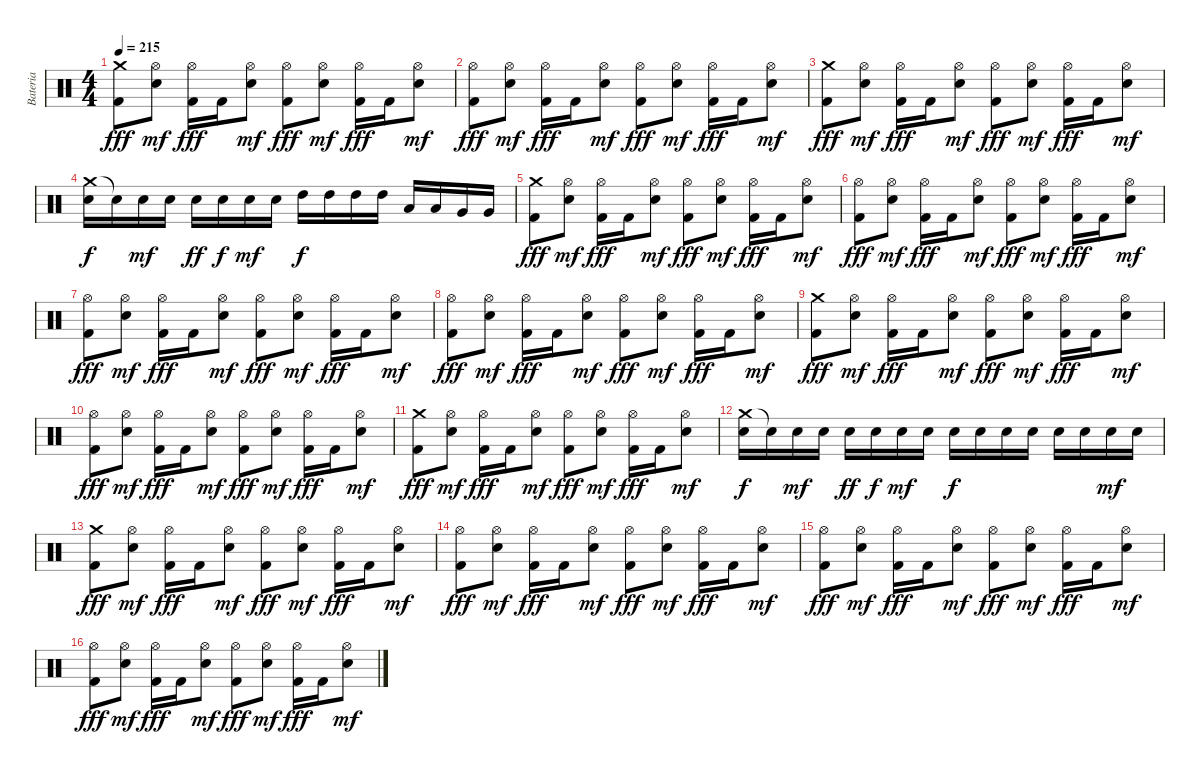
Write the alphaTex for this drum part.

\track ("Bateria" "Bateria") {instrument percussion}
\staff {score}
\articulation defaults
\ts (4 4)
\tempo 215
\clef neutral
\ks c
("Crash medium (hit)" "Kick (hit) 2").8{dy fff} ("Hi-Hat (open)" "Electric Snare (hit)").8{dy mf} ("Hi-Hat (open)" "Kick (hit) 2").16{dy fff} "Kick (hit) 2".16 ("Hi-Hat (open)" "Electric Snare (hit)").8{dy mf} ("Hi-Hat (open)" "Kick (hit) 2").8{dy fff} ("Hi-Hat (open)" "Electric Snare (hit)").8{dy mf} ("Hi-Hat (open)" "Kick (hit) 2").16{dy fff} "Kick (hit) 2".16 ("Hi-Hat (open)" "Electric Snare (hit)").8{dy mf} |
("Hi-Hat (open)" "Kick (hit) 2").8{dy fff} ("Hi-Hat (open)" "Electric Snare (hit)").8{dy mf} ("Hi-Hat (open)" "Kick (hit) 2").16{dy fff} "Kick (hit) 2".16 ("Hi-Hat (open)" "Electric Snare (hit)").8{dy mf} ("Hi-Hat (open)" "Kick (hit) 2").8{dy fff} ("Hi-Hat (open)" "Electric Snare (hit)").8{dy mf} ("Hi-Hat (open)" "Kick (hit) 2").16{dy fff} "Kick (hit) 2".16 ("Hi-Hat (open)" "Electric Snare (hit)").8{dy mf} |
("Crash medium (hit)" "Kick (hit) 2").8{dy fff} ("Hi-Hat (open)" "Electric Snare (hit)").8{dy mf} ("Hi-Hat (open)" "Kick (hit) 2").16{dy fff} "Kick (hit) 2".16 ("Hi-Hat (open)" "Electric Snare (hit)").8{dy mf} ("Hi-Hat (open)" "Kick (hit) 2").8{dy fff} ("Hi-Hat (open)" "Electric Snare (hit)").8{dy mf} ("Hi-Hat (open)" "Kick (hit) 2").16{dy fff} "Kick (hit) 2".16 ("Hi-Hat (open)" "Electric Snare (hit)").8{dy mf} |
("Crash medium (hit)" "Electric Snare (hit)").16{dy f} "Snare (hit)"{t}.16 "Electric Snare (hit)".16{dy mf} "Electric Snare (hit)".16 "Electric Snare (hit)".16{dy ff} "Electric Snare (hit)".16{dy f} "Electric Snare (hit)".16{dy mf} "Electric Snare (hit)".16 "High Tom (hit)".16{dy f} "High Tom (hit)".16 "High Tom (hit)".16 "High Tom (hit)".16 "Low Tom (hit)".16 "Low Tom (hit)".16 "Very Low Tom (hit)".16 "Very Low Tom (hit)".16 |
("Crash medium (hit)" "Kick (hit) 2").8{dy fff} ("Hi-Hat (open)" "Electric Snare (hit)").8{dy mf} ("Hi-Hat (open)" "Kick (hit) 2").16{dy fff} "Kick (hit) 2".16 ("Hi-Hat (open)" "Electric Snare (hit)").8{dy mf} ("Hi-Hat (open)" "Kick (hit) 2").8{dy fff} ("Hi-Hat (open)" "Electric Snare (hit)").8{dy mf} ("Hi-Hat (open)" "Kick (hit) 2").16{dy fff} "Kick (hit) 2".16 ("Hi-Hat (open)" "Electric Snare (hit)").8{dy mf} |
("Hi-Hat (open)" "Kick (hit) 2").8{dy fff} ("Hi-Hat (open)" "Electric Snare (hit)").8{dy mf} ("Hi-Hat (open)" "Kick (hit) 2").16{dy fff} "Kick (hit) 2".16 ("Hi-Hat (open)" "Electric Snare (hit)").8{dy mf} ("Hi-Hat (open)" "Kick (hit) 2").8{dy fff} ("Hi-Hat (open)" "Electric Snare (hit)").8{dy mf} ("Hi-Hat (open)" "Kick (hit) 2").16{dy fff} "Kick (hit) 2".16 ("Hi-Hat (open)" "Electric Snare (hit)").8{dy mf} |
("Hi-Hat (open)" "Kick (hit) 2").8{dy fff} ("Hi-Hat (open)" "Electric Snare (hit)").8{dy mf} ("Hi-Hat (open)" "Kick (hit) 2").16{dy fff} "Kick (hit) 2".16 ("Hi-Hat (open)" "Electric Snare (hit)").8{dy mf} ("Hi-Hat (open)" "Kick (hit) 2").8{dy fff} ("Hi-Hat (open)" "Electric Snare (hit)").8{dy mf} ("Hi-Hat (open)" "Kick (hit) 2").16{dy fff} "Kick (hit) 2".16 ("Hi-Hat (open)" "Electric Snare (hit)").8{dy mf} |
("Hi-Hat (open)" "Kick (hit) 2").8{dy fff} ("Hi-Hat (open)" "Electric Snare (hit)").8{dy mf} ("Hi-Hat (open)" "Kick (hit) 2").16{dy fff} "Kick (hit) 2".16 ("Hi-Hat (open)" "Electric Snare (hit)").8{dy mf} ("Hi-Hat (open)" "Kick (hit) 2").8{dy fff} ("Hi-Hat (open)" "Electric Snare (hit)").8{dy mf} ("Hi-Hat (open)" "Kick (hit) 2").16{dy fff} "Kick (hit) 2".16 ("Hi-Hat (open)" "Electric Snare (hit)").8{dy mf} |
("Crash medium (hit)" "Kick (hit) 2").8{dy fff} ("Hi-Hat (open)" "Electric Snare (hit)").8{dy mf} ("Hi-Hat (open)" "Kick (hit) 2").16{dy fff} "Kick (hit) 2".16 ("Hi-Hat (open)" "Electric Snare (hit)").8{dy mf} ("Hi-Hat (open)" "Kick (hit) 2").8{dy fff} ("Hi-Hat (open)" "Electric Snare (hit)").8{dy mf} ("Hi-Hat (open)" "Kick (hit) 2").16{dy fff} "Kick (hit) 2".16 ("Hi-Hat (open)" "Electric Snare (hit)").8{dy mf} |
("Hi-Hat (open)" "Kick (hit) 2").8{dy fff} ("Hi-Hat (open)" "Electric Snare (hit)").8{dy mf} ("Hi-Hat (open)" "Kick (hit) 2").16{dy fff} "Kick (hit) 2".16 ("Hi-Hat (open)" "Electric Snare (hit)").8{dy mf} ("Hi-Hat (open)" "Kick (hit) 2").8{dy fff} ("Hi-Hat (open)" "Electric Snare (hit)").8{dy mf} ("Hi-Hat (open)" "Kick (hit) 2").16{dy fff} "Kick (hit) 2".16 ("Hi-Hat (open)" "Electric Snare (hit)").8{dy mf} |
("Crash medium (hit)" "Kick (hit) 2").8{dy fff} ("Hi-Hat (open)" "Electric Snare (hit)").8{dy mf} ("Hi-Hat (open)" "Kick (hit) 2").16{dy fff} "Kick (hit) 2".16 ("Hi-Hat (open)" "Electric Snare (hit)").8{dy mf} ("Hi-Hat (open)" "Kick (hit) 2").8{dy fff} ("Hi-Hat (open)" "Electric Snare (hit)").8{dy mf} ("Hi-Hat (open)" "Kick (hit) 2").16{dy fff} "Kick (hit) 2".16 ("Hi-Hat (open)" "Electric Snare (hit)").8{dy mf} |
("Crash medium (hit)" "Electric Snare (hit)").16{dy f} "Snare (hit)"{t}.16 "Electric Snare (hit)".16{dy mf} "Electric Snare (hit)".16 "Electric Snare (hit)".16{dy ff} "Electric Snare (hit)".16{dy f} "Electric Snare (hit)".16{dy mf} "Electric Snare (hit)".16 "Electric Snare (hit)".16{dy f} "Electric Snare (hit)".16 "Electric Snare (hit)".16 "Electric Snare (hit)".16 "Electric Snare (hit)".16 "Electric Snare (hit)".16 "Electric Snare (hit)".16{dy mf} "Electric Snare (hit)".16 |
("Crash medium (hit)" "Kick (hit) 2").8{dy fff} ("Hi-Hat (open)" "Electric Snare (hit)").8{dy mf} ("Hi-Hat (open)" "Kick (hit) 2").16{dy fff} "Kick (hit) 2".16 ("Hi-Hat (open)" "Electric Snare (hit)").8{dy mf} ("Hi-Hat (open)" "Kick (hit) 2").8{dy fff} ("Hi-Hat (open)" "Electric Snare (hit)").8{dy mf} ("Hi-Hat (open)" "Kick (hit) 2").16{dy fff} "Kick (hit) 2".16 ("Hi-Hat (open)" "Electric Snare (hit)").8{dy mf} |
("Hi-Hat (open)" "Kick (hit) 2").8{dy fff} ("Hi-Hat (open)" "Electric Snare (hit)").8{dy mf} ("Hi-Hat (open)" "Kick (hit) 2").16{dy fff} "Kick (hit) 2".16 ("Hi-Hat (open)" "Electric Snare (hit)").8{dy mf} ("Hi-Hat (open)" "Kick (hit) 2").8{dy fff} ("Hi-Hat (open)" "Electric Snare (hit)").8{dy mf} ("Hi-Hat (open)" "Kick (hit) 2").16{dy fff} "Kick (hit) 2".16 ("Hi-Hat (open)" "Electric Snare (hit)").8{dy mf} |
("Hi-Hat (open)" "Kick (hit) 2").8{dy fff} ("Hi-Hat (open)" "Electric Snare (hit)").8{dy mf} ("Hi-Hat (open)" "Kick (hit) 2").16{dy fff} "Kick (hit) 2".16 ("Hi-Hat (open)" "Electric Snare (hit)").8{dy mf} ("Hi-Hat (open)" "Kick (hit) 2").8{dy fff} ("Hi-Hat (open)" "Electric Snare (hit)").8{dy mf} ("Hi-Hat (open)" "Kick (hit) 2").16{dy fff} "Kick (hit) 2".16 ("Hi-Hat (open)" "Electric Snare (hit)").8{dy mf} |
("Hi-Hat (open)" "Kick (hit) 2").8{dy fff} ("Hi-Hat (open)" "Electric Snare (hit)").8{dy mf} ("Hi-Hat (open)" "Kick (hit) 2").16{dy fff} "Kick (hit) 2".16 ("Hi-Hat (open)" "Electric Snare (hit)").8{dy mf} ("Hi-Hat (open)" "Kick (hit) 2").8{dy fff} ("Hi-Hat (open)" "Electric Snare (hit)").8{dy mf} ("Hi-Hat (open)" "Kick (hit) 2").16{dy fff} "Kick (hit) 2".16 ("Hi-Hat (open)" "Electric Snare (hit)").8{dy mf}
